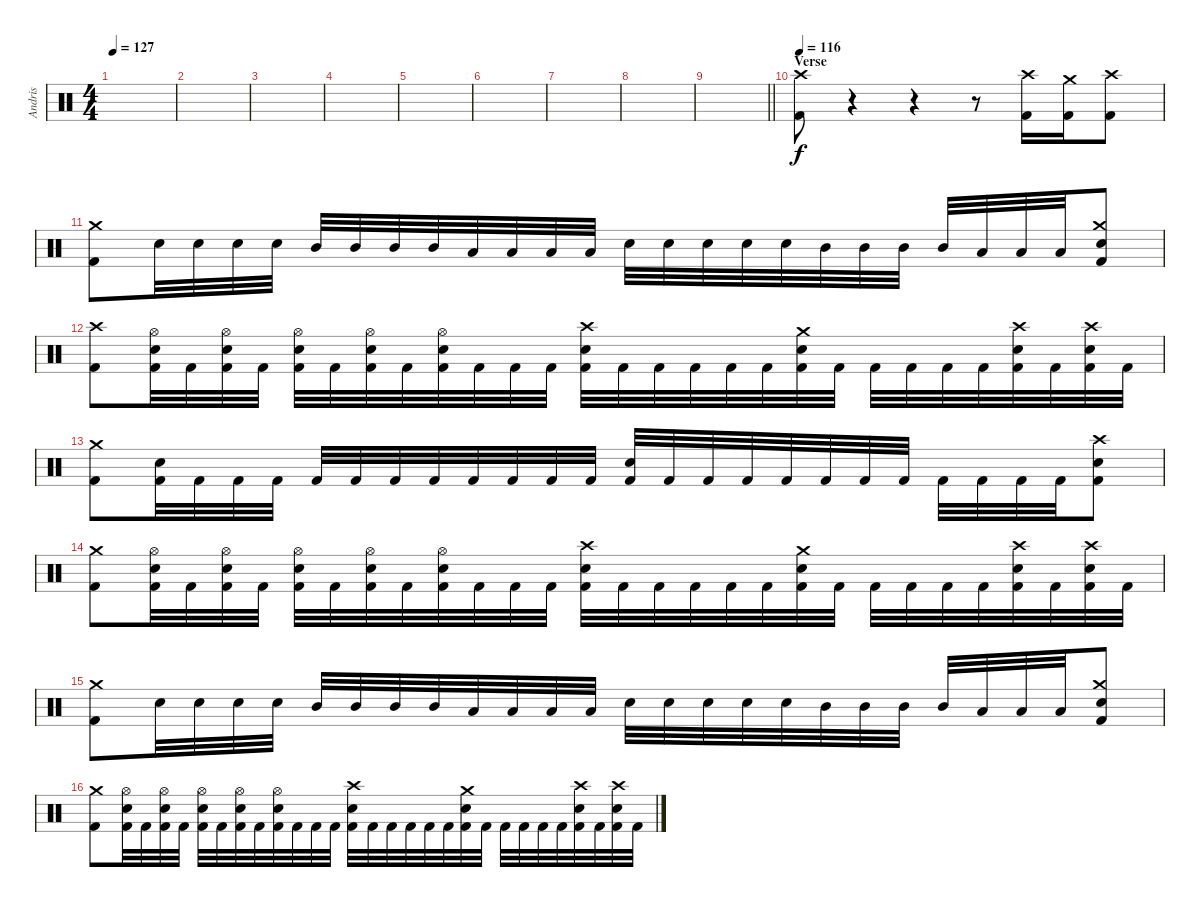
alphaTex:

\track ("Andris" "Andris") {instrument percussion}
\staff {score}
\articulation defaults
\ts (4 4)
\tempo 127
\clef neutral
\ks c
|
|
|
|
|
|
|
|
\barLineRight lightlight
|
\section ("" "Verse")
\tempo 116
("Crash high (hit)" "Kick (hit) 2").8 r.4 r.4 r.8 ("Crash high (hit)" "Kick (hit) 2").16 ("Crash medium (hit)" "Kick (hit) 2").16 ("Crash high (hit)" "Kick (hit) 2").8 |
("Crash medium (hit)" "Kick (hit) 2").8 "Electric Snare (hit)".32 "Electric Snare (hit)".32 "Electric Snare (hit)".32 "Electric Snare (hit)".32 "Mid Tom (hit)".32 "Mid Tom (hit)".32 "Mid Tom (hit)".32 "Mid Tom (hit)".32 "Low Tom (hit)".32 "Low Tom (hit)".32 "Low Tom (hit)".32 "Low Tom (hit)".32 "Electric Snare (hit)".32 "Electric Snare (hit)".32 "Electric Snare (hit)".32 "Electric Snare (hit)".32 "Electric Snare (hit)".32 "Mid Tom (hit)".32 "Mid Tom (hit)".32 "Mid Tom (hit)".32 "Mid Tom (hit)".32 "Low Tom (hit)".32 "Low Tom (hit)".32 "Low Tom (hit)".32 ("Crash medium (hit)" "Electric Snare (hit)" "Kick (hit) 2").8 |
("Crash high (hit)" "Kick (hit) 2").8 ("Hi-Hat (open)" "Electric Snare (hit)" "Kick (hit) 2").32 "Kick (hit) 2".32 ("Hi-Hat (open)" "Electric Snare (hit)" "Kick (hit) 2").32 "Kick (hit) 2".32 ("Hi-Hat (open)" "Electric Snare (hit)" "Kick (hit) 2").32 "Kick (hit) 2".32 ("Hi-Hat (open)" "Electric Snare (hit)" "Kick (hit) 2").32 "Kick (hit) 2".32 ("Hi-Hat (open)" "Electric Snare (hit)" "Kick (hit) 2").32 "Kick (hit) 2".32 "Kick (hit) 2".32 "Kick (hit) 2".32 ("Crash high (hit)" "Electric Snare (hit)" "Kick (hit) 2").32 "Kick (hit) 2".32 "Kick (hit) 2".32 "Kick (hit) 2".32 "Kick (hit) 2".32 "Kick (hit) 2".32 ("Crash medium (hit)" "Electric Snare (hit)" "Kick (hit) 2").32 "Kick (hit) 2".32 "Kick (hit) 2".32 "Kick (hit) 2".32 "Kick (hit) 2".32 "Kick (hit) 2".32 ("Crash high (hit)" "Electric Snare (hit)" "Kick (hit) 2").32 "Kick (hit) 2".32 ("Crash high (hit)" "Electric Snare (hit)" "Kick (hit) 2").32 "Kick (hit) 2".32 |
("Crash medium (hit)" "Kick (hit) 2").8 ("Electric Snare (hit)" "Kick (hit) 2").32 "Kick (hit) 2".32 "Kick (hit) 2".32 "Kick (hit) 2".32 "Kick (hit) 2".32 "Kick (hit) 2".32 "Kick (hit) 2".32 "Kick (hit) 2".32 "Kick (hit) 2".32 "Kick (hit) 2".32 "Kick (hit) 2".32 "Kick (hit) 2".32 ("Electric Snare (hit)" "Kick (hit) 2").32 "Kick (hit) 2".32 "Kick (hit) 2".32 "Kick (hit) 2".32 "Kick (hit) 2".32 "Kick (hit) 2".32 "Kick (hit) 2".32 "Kick (hit) 2".32 "Kick (hit) 2".32 "Kick (hit) 2".32 "Kick (hit) 2".32 "Kick (hit) 2".32 ("Crash high (hit)" "Electric Snare (hit)" "Kick (hit) 2").8 |
("Crash medium (hit)" "Kick (hit) 2").8 ("Hi-Hat (open)" "Electric Snare (hit)" "Kick (hit) 2").32 "Kick (hit) 2".32 ("Hi-Hat (open)" "Electric Snare (hit)" "Kick (hit) 2").32 "Kick (hit) 2".32 ("Hi-Hat (open)" "Electric Snare (hit)" "Kick (hit) 2").32 "Kick (hit) 2".32 ("Hi-Hat (open)" "Electric Snare (hit)" "Kick (hit) 2").32 "Kick (hit) 2".32 ("Hi-Hat (open)" "Electric Snare (hit)" "Kick (hit) 2").32 "Kick (hit) 2".32 "Kick (hit) 2".32 "Kick (hit) 2".32 ("Crash high (hit)" "Electric Snare (hit)" "Kick (hit) 2").32 "Kick (hit) 2".32 "Kick (hit) 2".32 "Kick (hit) 2".32 "Kick (hit) 2".32 "Kick (hit) 2".32 ("Crash medium (hit)" "Electric Snare (hit)" "Kick (hit) 2").32 "Kick (hit) 2".32 "Kick (hit) 2".32 "Kick (hit) 2".32 "Kick (hit) 2".32 "Kick (hit) 2".32 ("Crash high (hit)" "Electric Snare (hit)" "Kick (hit) 2").32 "Kick (hit) 2".32 ("Crash high (hit)" "Electric Snare (hit)" "Kick (hit) 2").32 "Kick (hit) 2".32 |
("Crash medium (hit)" "Kick (hit) 2").8 "Electric Snare (hit)".32 "Electric Snare (hit)".32 "Electric Snare (hit)".32 "Electric Snare (hit)".32 "Mid Tom (hit)".32 "Mid Tom (hit)".32 "Mid Tom (hit)".32 "Mid Tom (hit)".32 "Low Tom (hit)".32 "Low Tom (hit)".32 "Low Tom (hit)".32 "Low Tom (hit)".32 "Electric Snare (hit)".32 "Electric Snare (hit)".32 "Electric Snare (hit)".32 "Electric Snare (hit)".32 "Electric Snare (hit)".32 "Mid Tom (hit)".32 "Mid Tom (hit)".32 "Mid Tom (hit)".32 "Mid Tom (hit)".32 "Low Tom (hit)".32 "Low Tom (hit)".32 "Low Tom (hit)".32 ("Crash medium (hit)" "Electric Snare (hit)" "Kick (hit) 2").8 |
("Crash medium (hit)" "Kick (hit) 2").8 ("Hi-Hat (open)" "Electric Snare (hit)" "Kick (hit) 2").32 "Kick (hit) 2".32 ("Hi-Hat (open)" "Electric Snare (hit)" "Kick (hit) 2").32 "Kick (hit) 2".32 ("Hi-Hat (open)" "Electric Snare (hit)" "Kick (hit) 2").32 "Kick (hit) 2".32 ("Hi-Hat (open)" "Electric Snare (hit)" "Kick (hit) 2").32 "Kick (hit) 2".32 ("Hi-Hat (open)" "Electric Snare (hit)" "Kick (hit) 2").32 "Kick (hit) 2".32 "Kick (hit) 2".32 "Kick (hit) 2".32 ("Crash high (hit)" "Electric Snare (hit)" "Kick (hit) 2").32 "Kick (hit) 2".32 "Kick (hit) 2".32 "Kick (hit) 2".32 "Kick (hit) 2".32 "Kick (hit) 2".32 ("Crash medium (hit)" "Electric Snare (hit)" "Kick (hit) 2").32 "Kick (hit) 2".32 "Kick (hit) 2".32 "Kick (hit) 2".32 "Kick (hit) 2".32 "Kick (hit) 2".32 ("Crash high (hit)" "Electric Snare (hit)" "Kick (hit) 2").32 "Kick (hit) 2".32 ("Crash high (hit)" "Electric Snare (hit)" "Kick (hit) 2").32 "Kick (hit) 2".32
